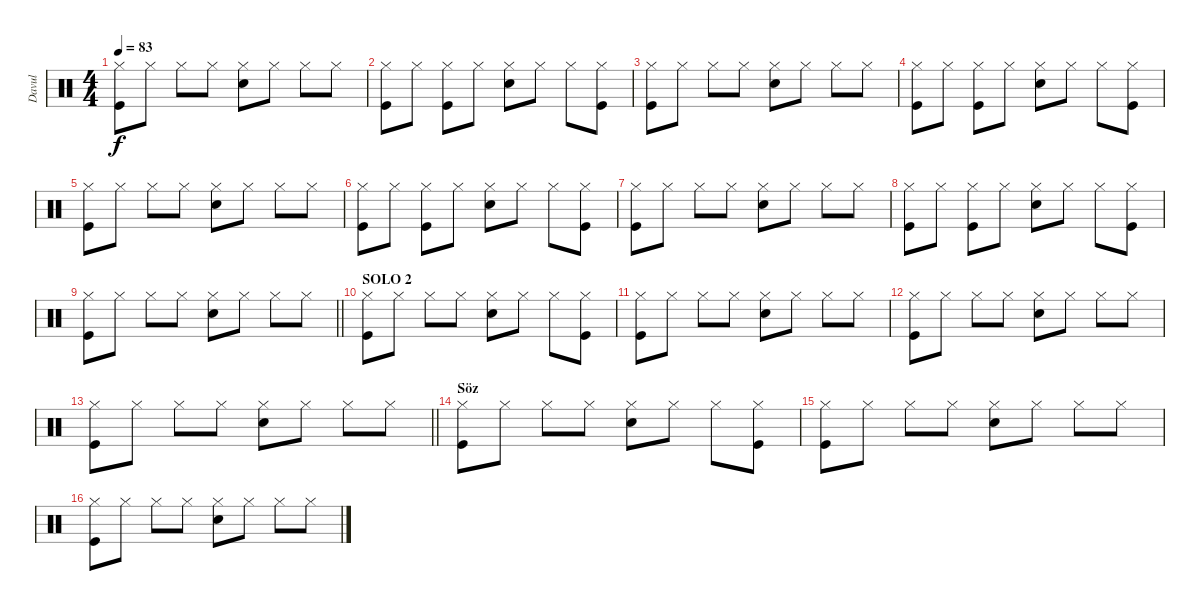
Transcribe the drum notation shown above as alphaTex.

\track ("Davul" "Davul") {instrument percussion}
\staff {score}
\articulation defaults
\ts (4 4)
\tempo 83
\clef neutral
\ks c
("Hi-Hat (closed)" "Kick (hit)").8{dy f} "Hi-Hat (closed)".8 "Hi-Hat (closed)".8 "Hi-Hat (closed)".8 ("Hi-Hat (closed)" "Electric Snare (hit)").8 "Hi-Hat (closed)".8 "Hi-Hat (closed)".8 "Hi-Hat (closed)".8 |
("Hi-Hat (closed)" "Kick (hit)").8 "Hi-Hat (closed)".8 ("Hi-Hat (closed)" "Kick (hit)").8 "Hi-Hat (closed)".8 ("Hi-Hat (closed)" "Electric Snare (hit)").8 "Hi-Hat (closed)".8 "Hi-Hat (closed)".8 ("Hi-Hat (closed)" "Kick (hit)").8 |
("Hi-Hat (closed)" "Kick (hit)").8 "Hi-Hat (closed)".8 "Hi-Hat (closed)".8 "Hi-Hat (closed)".8 ("Hi-Hat (closed)" "Electric Snare (hit)").8 "Hi-Hat (closed)".8 "Hi-Hat (closed)".8 "Hi-Hat (closed)".8 |
("Hi-Hat (closed)" "Kick (hit)").8 "Hi-Hat (closed)".8 ("Hi-Hat (closed)" "Kick (hit)").8 "Hi-Hat (closed)".8 ("Hi-Hat (closed)" "Electric Snare (hit)").8 "Hi-Hat (closed)".8 "Hi-Hat (closed)".8 ("Hi-Hat (closed)" "Kick (hit)").8 |
("Hi-Hat (closed)" "Kick (hit)").8 "Hi-Hat (closed)".8 "Hi-Hat (closed)".8 "Hi-Hat (closed)".8 ("Hi-Hat (closed)" "Electric Snare (hit)").8 "Hi-Hat (closed)".8 "Hi-Hat (closed)".8 "Hi-Hat (closed)".8 |
("Hi-Hat (closed)" "Kick (hit)").8 "Hi-Hat (closed)".8 ("Hi-Hat (closed)" "Kick (hit)").8 "Hi-Hat (closed)".8 ("Hi-Hat (closed)" "Electric Snare (hit)").8 "Hi-Hat (closed)".8 "Hi-Hat (closed)".8 ("Hi-Hat (closed)" "Kick (hit)").8 |
("Hi-Hat (closed)" "Kick (hit)").8 "Hi-Hat (closed)".8 "Hi-Hat (closed)".8 "Hi-Hat (closed)".8 ("Hi-Hat (closed)" "Electric Snare (hit)").8 "Hi-Hat (closed)".8 "Hi-Hat (closed)".8 "Hi-Hat (closed)".8 |
("Hi-Hat (closed)" "Kick (hit)").8 "Hi-Hat (closed)".8 ("Hi-Hat (closed)" "Kick (hit)").8 "Hi-Hat (closed)".8 ("Hi-Hat (closed)" "Electric Snare (hit)").8 "Hi-Hat (closed)".8 "Hi-Hat (closed)".8 ("Hi-Hat (closed)" "Kick (hit)").8 |
\barLineRight lightlight
("Hi-Hat (closed)" "Kick (hit)").8 "Hi-Hat (closed)".8 "Hi-Hat (closed)".8 "Hi-Hat (closed)".8 ("Hi-Hat (closed)" "Electric Snare (hit)").8 "Hi-Hat (closed)".8 "Hi-Hat (closed)".8 "Hi-Hat (closed)".8 |
\section ("" "SOLO 2")
("Hi-Hat (closed)" "Kick (hit)").8 "Hi-Hat (closed)".8 "Hi-Hat (closed)".8 "Hi-Hat (closed)".8 ("Hi-Hat (closed)" "Electric Snare (hit)").8 "Hi-Hat (closed)".8 "Hi-Hat (closed)".8 ("Hi-Hat (closed)" "Kick (hit)").8 |
("Hi-Hat (closed)" "Kick (hit)").8 "Hi-Hat (closed)".8 "Hi-Hat (closed)".8 "Hi-Hat (closed)".8 ("Hi-Hat (closed)" "Electric Snare (hit)").8 "Hi-Hat (closed)".8 "Hi-Hat (closed)".8 "Hi-Hat (closed)".8 |
("Hi-Hat (closed)" "Kick (hit)").8 "Hi-Hat (closed)".8 "Hi-Hat (closed)".8 "Hi-Hat (closed)".8 ("Hi-Hat (closed)" "Electric Snare (hit)").8 "Hi-Hat (closed)".8 "Hi-Hat (closed)".8 "Hi-Hat (closed)".8 |
\barLineRight lightlight
("Hi-Hat (closed)" "Kick (hit)").8 "Hi-Hat (closed)".8 "Hi-Hat (closed)".8 "Hi-Hat (closed)".8 ("Hi-Hat (closed)" "Electric Snare (hit)").8 "Hi-Hat (closed)".8 "Hi-Hat (closed)".8 "Hi-Hat (closed)".8 |
\section ("" "Söz")
("Hi-Hat (closed)" "Kick (hit)").8 "Hi-Hat (closed)".8 "Hi-Hat (closed)".8 "Hi-Hat (closed)".8 ("Hi-Hat (closed)" "Electric Snare (hit)").8 "Hi-Hat (closed)".8 "Hi-Hat (closed)".8 ("Hi-Hat (closed)" "Kick (hit)").8 |
("Hi-Hat (closed)" "Kick (hit)").8 "Hi-Hat (closed)".8 "Hi-Hat (closed)".8 "Hi-Hat (closed)".8 ("Hi-Hat (closed)" "Electric Snare (hit)").8 "Hi-Hat (closed)".8 "Hi-Hat (closed)".8 "Hi-Hat (closed)".8 |
("Hi-Hat (closed)" "Kick (hit)").8 "Hi-Hat (closed)".8 "Hi-Hat (closed)".8 "Hi-Hat (closed)".8 ("Hi-Hat (closed)" "Electric Snare (hit)").8 "Hi-Hat (closed)".8 "Hi-Hat (closed)".8 "Hi-Hat (closed)".8
